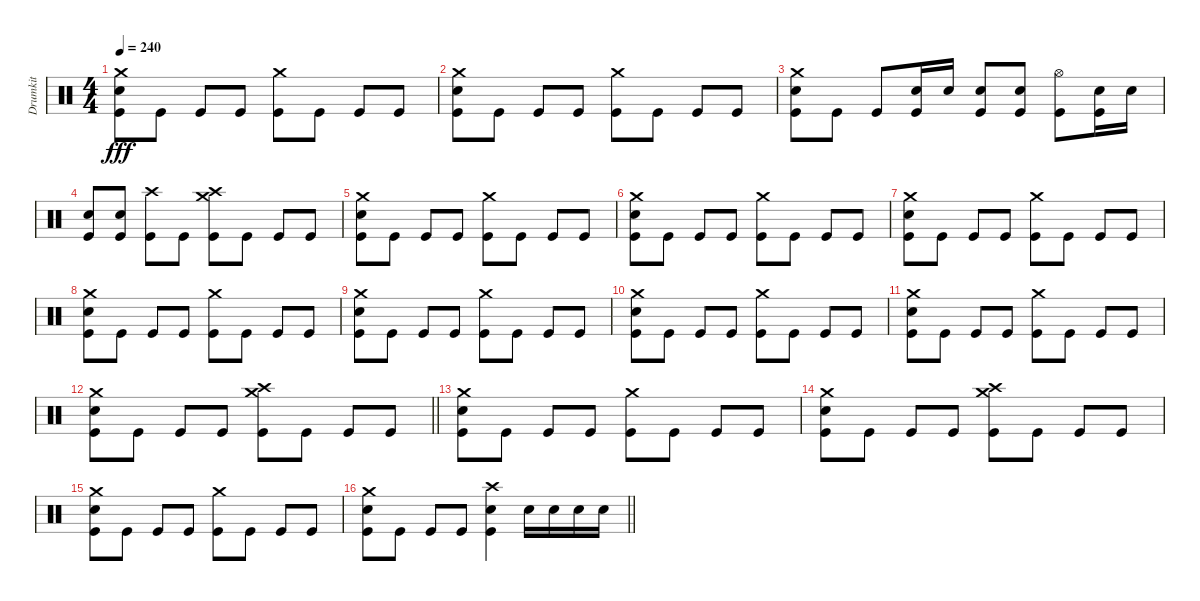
\track ("Drumkit" "Drumkit") {instrument percussion}
\staff {score}
\articulation defaults
\ts (4 4)
\tempo 240
\clef neutral
\ks c
("Crash medium (hit)" "Snare (hit) 2" "Kick (hit)").8{dy fff} "Kick (hit)".8 "Kick (hit)".8 "Kick (hit)".8 ("Crash medium (hit)" "Kick (hit)").8 "Kick (hit)".8 "Kick (hit)".8 "Kick (hit)".8 |
("Crash medium (hit)" "Snare (hit) 2" "Kick (hit)").8 "Kick (hit)".8 "Kick (hit)".8 "Kick (hit)".8 ("Crash medium (hit)" "Kick (hit)").8 "Kick (hit)".8 "Kick (hit)".8 "Kick (hit)".8 |
("Crash medium (hit)" "Snare (hit) 2" "Kick (hit)").8 "Kick (hit)".8 "Kick (hit)".8 ("Snare (hit) 2" "Kick (hit)").16 "Snare (hit) 2".16 ("Snare (hit) 2" "Kick (hit)").8 ("Snare (hit) 2" "Kick (hit)").8 ("Hi-Hat (open)" "Kick (hit)").8 ("Snare (hit) 2" "Kick (hit)").16 "Snare (hit) 2".16 |
("Snare (hit) 2" "Kick (hit)").8 ("Snare (hit) 2" "Kick (hit)").8 ("Crash high (hit)" "Kick (hit)").8 "Kick (hit)".8 ("Crash high (hit)" "Crash medium (hit)" "Kick (hit)").8 "Kick (hit)".8 "Kick (hit)".8 "Kick (hit)".8 |
("Crash medium (hit)" "Snare (hit) 2" "Kick (hit)").8 "Kick (hit)".8 "Kick (hit)".8 "Kick (hit)".8 ("Crash medium (hit)" "Kick (hit)").8 "Kick (hit)".8 "Kick (hit)".8 "Kick (hit)".8 |
("Crash medium (hit)" "Snare (hit) 2" "Kick (hit)").8 "Kick (hit)".8 "Kick (hit)".8 "Kick (hit)".8 ("Crash medium (hit)" "Kick (hit)").8 "Kick (hit)".8 "Kick (hit)".8 "Kick (hit)".8 |
("Crash medium (hit)" "Snare (hit) 2" "Kick (hit)").8 "Kick (hit)".8 "Kick (hit)".8 "Kick (hit)".8 ("Crash medium (hit)" "Kick (hit)").8 "Kick (hit)".8 "Kick (hit)".8 "Kick (hit)".8 |
("Crash medium (hit)" "Snare (hit) 2" "Kick (hit)").8 "Kick (hit)".8 "Kick (hit)".8 "Kick (hit)".8 ("Crash medium (hit)" "Kick (hit)").8 "Kick (hit)".8 "Kick (hit)".8 "Kick (hit)".8 |
("Crash medium (hit)" "Snare (hit) 2" "Kick (hit)").8 "Kick (hit)".8 "Kick (hit)".8 "Kick (hit)".8 ("Crash medium (hit)" "Kick (hit)").8 "Kick (hit)".8 "Kick (hit)".8 "Kick (hit)".8 |
("Crash medium (hit)" "Snare (hit) 2" "Kick (hit)").8 "Kick (hit)".8 "Kick (hit)".8 "Kick (hit)".8 ("Crash medium (hit)" "Kick (hit)").8 "Kick (hit)".8 "Kick (hit)".8 "Kick (hit)".8 |
("Crash medium (hit)" "Snare (hit) 2" "Kick (hit)").8 "Kick (hit)".8 "Kick (hit)".8 "Kick (hit)".8 ("Crash medium (hit)" "Kick (hit)").8 "Kick (hit)".8 "Kick (hit)".8 "Kick (hit)".8 |
\barLineRight lightlight
("Crash medium (hit)" "Snare (hit) 2" "Kick (hit)").8 "Kick (hit)".8 "Kick (hit)".8 "Kick (hit)".8 ("Crash high (hit)" "Crash medium (hit)" "Kick (hit)").8 "Kick (hit)".8 "Kick (hit)".8 "Kick (hit)".8 |
("Crash medium (hit)" "Snare (hit) 2" "Kick (hit)").8 "Kick (hit)".8 "Kick (hit)".8 "Kick (hit)".8 ("Crash medium (hit)" "Kick (hit)").8 "Kick (hit)".8 "Kick (hit)".8 "Kick (hit)".8 |
("Crash medium (hit)" "Snare (hit) 2" "Kick (hit)").8 "Kick (hit)".8 "Kick (hit)".8 "Kick (hit)".8 ("Crash high (hit)" "Crash medium (hit)" "Kick (hit)").8 "Kick (hit)".8 "Kick (hit)".8 "Kick (hit)".8 |
("Crash medium (hit)" "Snare (hit) 2" "Kick (hit)").8 "Kick (hit)".8 "Kick (hit)".8 "Kick (hit)".8 ("Crash medium (hit)" "Kick (hit)").8 "Kick (hit)".8 "Kick (hit)".8 "Kick (hit)".8 |
\barLineRight lightlight
("Crash medium (hit)" "Snare (hit) 2" "Kick (hit)").8 "Kick (hit)".8 "Kick (hit)".8 "Kick (hit)".8 ("Crash high (hit)" "Snare (hit) 2" "Kick (hit)").4 "Snare (hit) 2".16 "Snare (hit) 2".16 "Snare (hit) 2".16 "Snare (hit) 2".16
